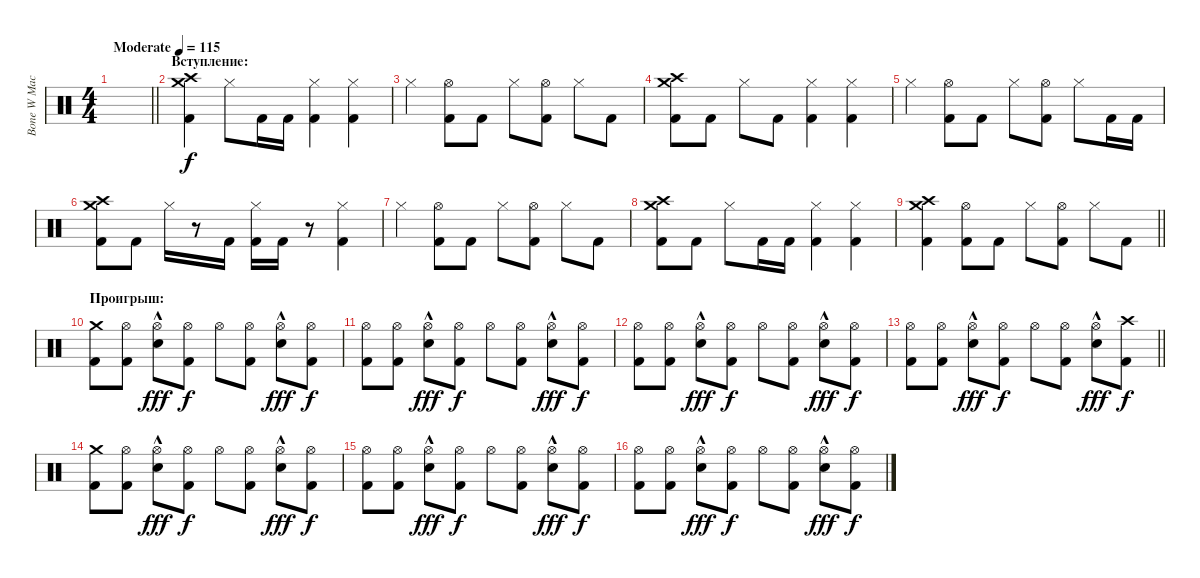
\track ("Bone W Machine" "Bone W Mac") {instrument percussion}
\staff {score}
\articulation defaults
\ts (4 4)
\tempo (115 "Moderate")
\clef neutral
\barLineRight lightlight
\ks c
|
\section ("" "Вступление:")
("Crash high (hit)" "Crash medium (hit)" "Kick (hit) 2").4 "Hi-Hat (closed)".8 "Kick (hit) 2".16 "Kick (hit) 2".16 ("Hi-Hat (closed)" "Kick (hit) 2").4 ("Hi-Hat (closed)" "Kick (hit) 2").4 |
"Hi-Hat (closed)".4 ("Hi-Hat (open)" "Kick (hit) 2").8 "Kick (hit) 2".8 "Hi-Hat (closed)".8 ("Hi-Hat (open)" "Kick (hit) 2").8 "Hi-Hat (closed)".8 "Kick (hit) 2".8 |
("Crash high (hit)" "Crash medium (hit)" "Kick (hit) 2").8 "Kick (hit) 2".8 "Hi-Hat (closed)".8 "Kick (hit) 2".8 ("Hi-Hat (closed)" "Kick (hit) 2").4 ("Hi-Hat (closed)" "Kick (hit) 2").4 |
"Hi-Hat (closed)".4 ("Hi-Hat (open)" "Kick (hit) 2").8 "Kick (hit) 2".8 "Hi-Hat (closed)".8 ("Hi-Hat (open)" "Kick (hit) 2").8 "Hi-Hat (closed)".8 "Kick (hit) 2".16 "Kick (hit) 2".16 |
("Crash high (hit)" "Crash medium (hit)" "Kick (hit) 2").8 "Kick (hit) 2".8 "Hi-Hat (closed)".16 r.8 "Kick (hit) 2".16 ("Hi-Hat (closed)" "Kick (hit) 2").16 "Kick (hit) 2".16 r.8 ("Hi-Hat (closed)" "Kick (hit) 2").4 |
"Hi-Hat (closed)".4 ("Hi-Hat (open)" "Kick (hit) 2").8 "Kick (hit) 2".8 "Hi-Hat (closed)".8 ("Hi-Hat (open)" "Kick (hit) 2").8 "Hi-Hat (closed)".8 "Kick (hit) 2".8 |
("Crash high (hit)" "Crash medium (hit)" "Kick (hit) 2").8 "Kick (hit) 2".8 "Hi-Hat (closed)".8 "Kick (hit) 2".16 "Kick (hit) 2".16 ("Hi-Hat (closed)" "Kick (hit) 2").4 ("Hi-Hat (closed)" "Kick (hit) 2").4 |
\barLineRight lightlight
("Crash high (hit)" "Crash medium (hit)" "Kick (hit) 2").4 ("Hi-Hat (open)" "Kick (hit) 2").8 "Kick (hit) 2".8 "Hi-Hat (closed)".8 ("Hi-Hat (open)" "Kick (hit) 2").8 "Hi-Hat (closed)".8 "Kick (hit) 2".8 |
\section ("" "Проигрыш:")
("Crash medium (hit)" "Kick (hit) 2").8 ("Hi-Hat (open)" "Kick (hit) 2").8 ("Hi-Hat (open)" "Electric Snare (hit)"{hac}).8{dy fff} ("Hi-Hat (open)" "Kick (hit) 2").8{dy f} "Hi-Hat (open)".8 ("Hi-Hat (open)" "Kick (hit) 2").8 ("Hi-Hat (open)" "Electric Snare (hit)"{hac}).8{dy fff} ("Hi-Hat (open)" "Kick (hit) 2").8{dy f} |
("Hi-Hat (open)" "Kick (hit) 2").8 ("Hi-Hat (open)" "Kick (hit) 2").8 ("Hi-Hat (open)" "Electric Snare (hit)"{hac}).8{dy fff} ("Hi-Hat (open)" "Kick (hit) 2").8{dy f} "Hi-Hat (open)".8 ("Hi-Hat (open)" "Kick (hit) 2").8 ("Hi-Hat (open)" "Electric Snare (hit)"{hac}).8{dy fff} ("Hi-Hat (open)" "Kick (hit) 2").8{dy f} |
("Hi-Hat (open)" "Kick (hit) 2").8 ("Hi-Hat (open)" "Kick (hit) 2").8 ("Hi-Hat (open)" "Electric Snare (hit)"{hac}).8{dy fff} ("Hi-Hat (open)" "Kick (hit) 2").8{dy f} "Hi-Hat (open)".8 ("Hi-Hat (open)" "Kick (hit) 2").8 ("Hi-Hat (open)" "Electric Snare (hit)"{hac}).8{dy fff} ("Hi-Hat (open)" "Kick (hit) 2").8{dy f} |
\barLineRight lightlight
("Hi-Hat (open)" "Kick (hit) 2").8 ("Hi-Hat (open)" "Kick (hit) 2").8 ("Hi-Hat (open)" "Electric Snare (hit)"{hac}).8{dy fff} ("Hi-Hat (open)" "Kick (hit) 2").8{dy f} "Hi-Hat (open)".8 ("Hi-Hat (open)" "Kick (hit) 2").8 ("Hi-Hat (open)" "Electric Snare (hit)"{hac}).8{dy fff} ("Crash high (hit)" "Kick (hit) 2").8{dy f} |
("Crash medium (hit)" "Kick (hit) 2").8 ("Hi-Hat (open)" "Kick (hit) 2").8 ("Hi-Hat (open)" "Electric Snare (hit)"{hac}).8{dy fff} ("Hi-Hat (open)" "Kick (hit) 2").8{dy f} "Hi-Hat (open)".8 ("Hi-Hat (open)" "Kick (hit) 2").8 ("Hi-Hat (open)" "Electric Snare (hit)"{hac}).8{dy fff} ("Hi-Hat (open)" "Kick (hit) 2").8{dy f} |
("Hi-Hat (open)" "Kick (hit) 2").8 ("Hi-Hat (open)" "Kick (hit) 2").8 ("Hi-Hat (open)" "Electric Snare (hit)"{hac}).8{dy fff} ("Hi-Hat (open)" "Kick (hit) 2").8{dy f} "Hi-Hat (open)".8 ("Hi-Hat (open)" "Kick (hit) 2").8 ("Hi-Hat (open)" "Electric Snare (hit)"{hac}).8{dy fff} ("Hi-Hat (open)" "Kick (hit) 2").8{dy f} |
("Hi-Hat (open)" "Kick (hit) 2").8 ("Hi-Hat (open)" "Kick (hit) 2").8 ("Hi-Hat (open)" "Electric Snare (hit)"{hac}).8{dy fff} ("Hi-Hat (open)" "Kick (hit) 2").8{dy f} "Hi-Hat (open)".8 ("Hi-Hat (open)" "Kick (hit) 2").8 ("Hi-Hat (open)" "Electric Snare (hit)"{hac}).8{dy fff} ("Hi-Hat (open)" "Kick (hit) 2").8{dy f}
